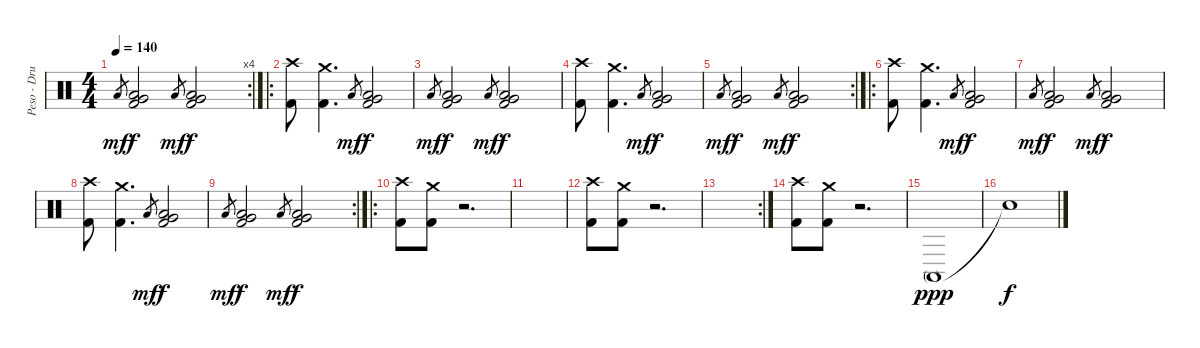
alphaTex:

\track ("Peso - Drums" "Peso - Dru") {instrument percussion}
\staff {score}
\articulation defaults
\rc 4
\ts (4 4)
\tempo 140
\clef neutral
\ks c "Low Floor Tom (hit)".8{gr dy mf}
("Very Low Tom (hit)" "Low Floor Tom (hit)" "Kick (hit) 2").2{dy f} "Low Floor Tom (hit)".8{gr dy mf} ("Very Low Tom (hit)" "Low Floor Tom (hit)" "Kick (hit) 2").2{dy f} |
\ro
("Crash high (hit)" "Kick (hit) 2").8 ("Crash medium (hit)" "Kick (hit) 2").4{d} "Low Floor Tom (hit)".8{gr dy mf} ("Very Low Tom (hit)" "Low Floor Tom (hit)" "Kick (hit) 2").2{dy f} |
"Low Floor Tom (hit)".8{gr dy mf} ("Very Low Tom (hit)" "Low Floor Tom (hit)" "Kick (hit) 2").2{dy f} "Low Floor Tom (hit)".8{gr dy mf} ("Very Low Tom (hit)" "Low Floor Tom (hit)" "Kick (hit) 2").2{dy f} |
("Crash high (hit)" "Kick (hit) 2").8 ("Crash medium (hit)" "Kick (hit) 2").4{d} "Low Floor Tom (hit)".8{gr dy mf} ("Very Low Tom (hit)" "Low Floor Tom (hit)" "Kick (hit) 2").2{dy f} |
\rc 2 "Low Floor Tom (hit)".8{gr dy mf}
("Very Low Tom (hit)" "Low Floor Tom (hit)" "Kick (hit) 2").2{dy f} "Low Floor Tom (hit)".8{gr dy mf} ("Very Low Tom (hit)" "Low Floor Tom (hit)" "Kick (hit) 2").2{dy f} |
\ro
("Crash high (hit)" "Kick (hit) 2").8 ("Crash medium (hit)" "Kick (hit) 2").4{d} "Low Floor Tom (hit)".8{gr dy mf} ("Very Low Tom (hit)" "Low Floor Tom (hit)" "Kick (hit) 2").2{dy f} |
"Low Floor Tom (hit)".8{gr dy mf} ("Very Low Tom (hit)" "Low Floor Tom (hit)" "Kick (hit) 2").2{dy f} "Low Floor Tom (hit)".8{gr dy mf} ("Very Low Tom (hit)" "Low Floor Tom (hit)" "Kick (hit) 2").2{dy f} |
("Crash high (hit)" "Kick (hit) 2").8 ("Crash medium (hit)" "Kick (hit) 2").4{d} "Low Floor Tom (hit)".8{gr dy mf} ("Very Low Tom (hit)" "Low Floor Tom (hit)" "Kick (hit) 2").2{dy f} |
\rc 2 "Low Floor Tom (hit)".8{gr dy mf}
("Very Low Tom (hit)" "Low Floor Tom (hit)" "Kick (hit) 2").2{dy f} "Low Floor Tom (hit)".8{gr dy mf} ("Very Low Tom (hit)" "Low Floor Tom (hit)" "Kick (hit) 2").2{dy f} |
\ro
("Crash high (hit)" "Kick (hit) 2").8 ("Crash medium (hit)" "Kick (hit) 2").8 r.2{d} |
|
("Crash high (hit)" "Kick (hit) 2").8 ("Crash medium (hit)" "Kick (hit) 2").8 r.2{d} |
\rc 2
|
("Crash high (hit)" "Kick (hit) 2").8 ("Crash medium (hit)" "Kick (hit) 2").8 r.2{d} |
"Conga high (mute)".1{dy ppp} |
"Snare (hit)"{t}.1{dy f}
